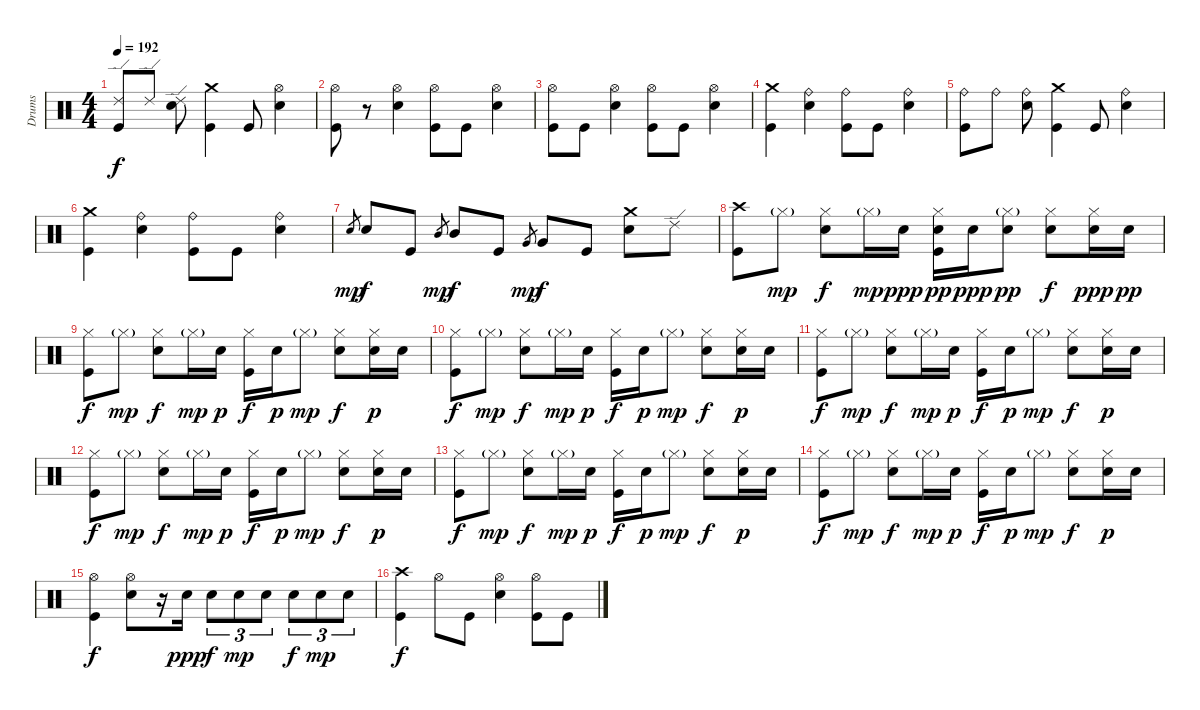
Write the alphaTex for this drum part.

\track ("Drums" "Drums") {instrument percussion}
\staff {score}
\articulation defaults
\ts (4 4)
\tempo 192
\clef neutral
\ks c
("Ride (edge) 2" "Kick (hit)").8{dy f} "Ride (edge) 2".8 ("Ride (edge) 2" "Electric Snare (hit)").8 ("Crash medium (hit)" "Kick (hit)").4 "Kick (hit)".8 ("Hi-Hat (open)" "Electric Snare (hit)").4 |
("Hi-Hat (open)" "Kick (hit)").8 r.8 ("Hi-Hat (open)" "Electric Snare (hit)").4 ("Hi-Hat (open)" "Kick (hit)").8 "Kick (hit)".8 ("Hi-Hat (open)" "Electric Snare (hit)").4 |
("Hi-Hat (open)" "Kick (hit)").8 "Kick (hit)".8 ("Hi-Hat (open)" "Electric Snare (hit)").4 ("Hi-Hat (open)" "Kick (hit)").8 "Kick (hit)".8 ("Hi-Hat (open)" "Electric Snare (hit)").4 |
("Crash medium (hit)" "Kick (hit)").4 ("Ride (bell)" "Electric Snare (hit)").4 ("Ride (bell)" "Kick (hit)").8 "Kick (hit)".8 ("Ride (bell)" "Electric Snare (hit)").4 |
("Ride (bell)" "Kick (hit)").8 "Ride (bell)".8 ("Ride (bell)" "Electric Snare (hit)").8 ("Crash medium (hit)" "Kick (hit)").4 "Kick (hit)".8 ("Ride (bell)" "Electric Snare (hit)").4 |
("Crash medium (hit)" "Kick (hit)").4 ("Ride (bell)" "Electric Snare (hit)").4 ("Ride (bell)" "Kick (hit)").8 "Kick (hit)".8 ("Ride (bell)" "Electric Snare (hit)").4 |
"Electric Snare (hit)".8{gr dy mp} "Electric Snare (hit)".8{dy f} "Kick (hit)".8 "Mid Tom (hit)".8{gr dy mp} "Mid Tom (hit)".8{dy f} "Kick (hit)".8 "Very Low Tom (hit)".8{gr dy mp} "Very Low Tom (hit)".8{dy f} "Kick (hit)".8 ("Crash medium (hit)" "Electric Snare (hit)").8 "Ride (edge) 2".8 |
("Crash high (hit)" "Kick (hit)").8 "Hi-Hat (closed)"{g}.8{dy mp} ("Hi-Hat (closed)" "Electric Snare (hit)").8{dy f} "Hi-Hat (closed)"{g}.16{dy mp} "Electric Snare (hit)".16{dy ppp} ("Hi-Hat (closed)" "Electric Snare (hit)" "Kick (hit)").16{dy pp} "Electric Snare (hit)".16{dy ppp} ("Hi-Hat (closed)"{g} "Electric Snare (hit)").8{dy pp} ("Hi-Hat (closed)" "Electric Snare (hit)").8{dy f} ("Hi-Hat (closed)" "Electric Snare (hit)").16{dy ppp} "Electric Snare (hit)".16{dy pp} |
("Hi-Hat (closed)" "Kick (hit)").8{dy f} "Hi-Hat (closed)"{g}.8{dy mp} ("Hi-Hat (closed)" "Electric Snare (hit)").8{dy f} "Hi-Hat (closed)"{g}.16{dy mp} "Electric Snare (hit)".16{dy p} ("Hi-Hat (closed)" "Kick (hit)").16{dy f} "Electric Snare (hit)".16{dy p} "Hi-Hat (closed)"{g}.8{dy mp} ("Hi-Hat (closed)" "Electric Snare (hit)").8{dy f} ("Hi-Hat (closed)" "Electric Snare (hit)").16{dy p} "Electric Snare (hit)".16 |
("Hi-Hat (closed)" "Kick (hit)").8{dy f} "Hi-Hat (closed)"{g}.8{dy mp} ("Hi-Hat (closed)" "Electric Snare (hit)").8{dy f} "Hi-Hat (closed)"{g}.16{dy mp} "Electric Snare (hit)".16{dy p} ("Hi-Hat (closed)" "Kick (hit)").16{dy f} "Electric Snare (hit)".16{dy p} "Hi-Hat (closed)"{g}.8{dy mp} ("Hi-Hat (closed)" "Electric Snare (hit)").8{dy f} ("Hi-Hat (closed)" "Electric Snare (hit)").16{dy p} "Electric Snare (hit)".16 |
("Hi-Hat (closed)" "Kick (hit)").8{dy f} "Hi-Hat (closed)"{g}.8{dy mp} ("Hi-Hat (closed)" "Electric Snare (hit)").8{dy f} "Hi-Hat (closed)"{g}.16{dy mp} "Electric Snare (hit)".16{dy p} ("Hi-Hat (closed)" "Kick (hit)").16{dy f} "Electric Snare (hit)".16{dy p} "Hi-Hat (closed)"{g}.8{dy mp} ("Hi-Hat (closed)" "Electric Snare (hit)").8{dy f} ("Hi-Hat (closed)" "Electric Snare (hit)").16{dy p} "Electric Snare (hit)".16 |
("Hi-Hat (closed)" "Kick (hit)").8{dy f} "Hi-Hat (closed)"{g}.8{dy mp} ("Hi-Hat (closed)" "Electric Snare (hit)").8{dy f} "Hi-Hat (closed)"{g}.16{dy mp} "Electric Snare (hit)".16{dy p} ("Hi-Hat (closed)" "Kick (hit)").16{dy f} "Electric Snare (hit)".16{dy p} "Hi-Hat (closed)"{g}.8{dy mp} ("Hi-Hat (closed)" "Electric Snare (hit)").8{dy f} ("Hi-Hat (closed)" "Electric Snare (hit)").16{dy p} "Electric Snare (hit)".16 |
("Hi-Hat (closed)" "Kick (hit)").8{dy f} "Hi-Hat (closed)"{g}.8{dy mp} ("Hi-Hat (closed)" "Electric Snare (hit)").8{dy f} "Hi-Hat (closed)"{g}.16{dy mp} "Electric Snare (hit)".16{dy p} ("Hi-Hat (closed)" "Kick (hit)").16{dy f} "Electric Snare (hit)".16{dy p} "Hi-Hat (closed)"{g}.8{dy mp} ("Hi-Hat (closed)" "Electric Snare (hit)").8{dy f} ("Hi-Hat (closed)" "Electric Snare (hit)").16{dy p} "Electric Snare (hit)".16 |
("Hi-Hat (closed)" "Kick (hit)").8{dy f} "Hi-Hat (closed)"{g}.8{dy mp} ("Hi-Hat (closed)" "Electric Snare (hit)").8{dy f} "Hi-Hat (closed)"{g}.16{dy mp} "Electric Snare (hit)".16{dy p} ("Hi-Hat (closed)" "Kick (hit)").16{dy f} "Electric Snare (hit)".16{dy p} "Hi-Hat (closed)"{g}.8{dy mp} ("Hi-Hat (closed)" "Electric Snare (hit)").8{dy f} ("Hi-Hat (closed)" "Electric Snare (hit)").16{dy p} "Electric Snare (hit)".16 |
("Hi-Hat (open)" "Kick (hit)").4{dy f} ("Hi-Hat (open)" "Electric Snare (hit)").8 r.16 "Electric Snare (hit)".16{dy ppp} "Electric Snare (hit)".8{tu (3 2) dy f} "Electric Snare (hit)".8{tu (3 2) dy mp} "Electric Snare (hit)".8{tu (3 2)} "Electric Snare (hit)".8{tu (3 2) dy f} "Electric Snare (hit)".8{tu (3 2) dy mp} "Electric Snare (hit)".8{tu (3 2)} |
("Crash high (hit)" "Kick (hit)").4{dy f} "Hi-Hat (open)".8 "Kick (hit)".8 ("Hi-Hat (open)" "Electric Snare (hit)").4 ("Hi-Hat (open)" "Kick (hit)").8 "Kick (hit)".8
